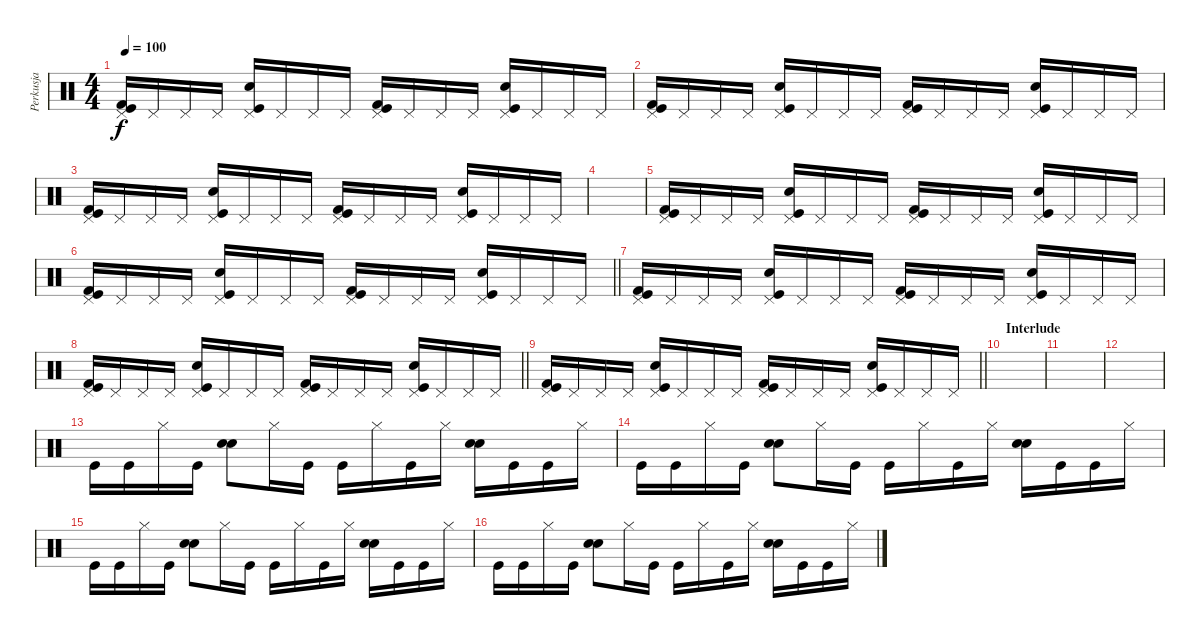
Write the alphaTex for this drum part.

\track ("Perkusja" "Perkusja") {instrument percussion}
\staff {score}
\articulation defaults
\ts (4 4)
\tempo 100
\clef neutral
\ks c
("Pedal Hi-Hat (hit)" "Kick (hit)" "Kick (hit) 2").16{dy f} "Pedal Hi-Hat (hit)".16 "Pedal Hi-Hat (hit)".16 "Pedal Hi-Hat (hit)".16 ("Pedal Hi-Hat (hit)" "Hand Clap (hit)" "Kick (hit)").16 "Pedal Hi-Hat (hit)".16 "Pedal Hi-Hat (hit)".16 "Pedal Hi-Hat (hit)".16 ("Pedal Hi-Hat (hit)" "Kick (hit)" "Kick (hit) 2").16 "Pedal Hi-Hat (hit)".16 "Pedal Hi-Hat (hit)".16 "Pedal Hi-Hat (hit)".16 ("Pedal Hi-Hat (hit)" "Hand Clap (hit)" "Kick (hit)").16 "Pedal Hi-Hat (hit)".16 "Pedal Hi-Hat (hit)".16 "Pedal Hi-Hat (hit)".16 |
("Pedal Hi-Hat (hit)" "Kick (hit)" "Kick (hit) 2").16 "Pedal Hi-Hat (hit)".16 "Pedal Hi-Hat (hit)".16 "Pedal Hi-Hat (hit)".16 ("Pedal Hi-Hat (hit)" "Hand Clap (hit)" "Kick (hit)").16 "Pedal Hi-Hat (hit)".16 "Pedal Hi-Hat (hit)".16 "Pedal Hi-Hat (hit)".16 ("Pedal Hi-Hat (hit)" "Kick (hit)" "Kick (hit) 2").16 "Pedal Hi-Hat (hit)".16 "Pedal Hi-Hat (hit)".16 "Pedal Hi-Hat (hit)".16 ("Pedal Hi-Hat (hit)" "Hand Clap (hit)" "Kick (hit)").16 "Pedal Hi-Hat (hit)".16 "Pedal Hi-Hat (hit)".16 "Pedal Hi-Hat (hit)".16 |
("Pedal Hi-Hat (hit)" "Kick (hit)" "Kick (hit) 2").16 "Pedal Hi-Hat (hit)".16 "Pedal Hi-Hat (hit)".16 "Pedal Hi-Hat (hit)".16 ("Pedal Hi-Hat (hit)" "Hand Clap (hit)" "Kick (hit)").16 "Pedal Hi-Hat (hit)".16 "Pedal Hi-Hat (hit)".16 "Pedal Hi-Hat (hit)".16 ("Pedal Hi-Hat (hit)" "Kick (hit)" "Kick (hit) 2").16 "Pedal Hi-Hat (hit)".16 "Pedal Hi-Hat (hit)".16 "Pedal Hi-Hat (hit)".16 ("Pedal Hi-Hat (hit)" "Hand Clap (hit)" "Kick (hit)").16 "Pedal Hi-Hat (hit)".16 "Pedal Hi-Hat (hit)".16 "Pedal Hi-Hat (hit)".16 |
|
("Pedal Hi-Hat (hit)" "Kick (hit)" "Kick (hit) 2").16 "Pedal Hi-Hat (hit)".16 "Pedal Hi-Hat (hit)".16 "Pedal Hi-Hat (hit)".16 ("Pedal Hi-Hat (hit)" "Hand Clap (hit)" "Kick (hit)").16 "Pedal Hi-Hat (hit)".16 "Pedal Hi-Hat (hit)".16 "Pedal Hi-Hat (hit)".16 ("Pedal Hi-Hat (hit)" "Kick (hit)" "Kick (hit) 2").16 "Pedal Hi-Hat (hit)".16 "Pedal Hi-Hat (hit)".16 "Pedal Hi-Hat (hit)".16 ("Pedal Hi-Hat (hit)" "Hand Clap (hit)" "Kick (hit)").16 "Pedal Hi-Hat (hit)".16 "Pedal Hi-Hat (hit)".16 "Pedal Hi-Hat (hit)".16 |
\barLineRight lightlight
("Pedal Hi-Hat (hit)" "Kick (hit)" "Kick (hit) 2").16 "Pedal Hi-Hat (hit)".16 "Pedal Hi-Hat (hit)".16 "Pedal Hi-Hat (hit)".16 ("Pedal Hi-Hat (hit)" "Hand Clap (hit)" "Kick (hit)").16 "Pedal Hi-Hat (hit)".16 "Pedal Hi-Hat (hit)".16 "Pedal Hi-Hat (hit)".16 ("Pedal Hi-Hat (hit)" "Kick (hit)" "Kick (hit) 2").16 "Pedal Hi-Hat (hit)".16 "Pedal Hi-Hat (hit)".16 "Pedal Hi-Hat (hit)".16 ("Pedal Hi-Hat (hit)" "Hand Clap (hit)" "Kick (hit)").16 "Pedal Hi-Hat (hit)".16 "Pedal Hi-Hat (hit)".16 "Pedal Hi-Hat (hit)".16 |
("Pedal Hi-Hat (hit)" "Kick (hit)" "Kick (hit) 2").16 "Pedal Hi-Hat (hit)".16 "Pedal Hi-Hat (hit)".16 "Pedal Hi-Hat (hit)".16 ("Pedal Hi-Hat (hit)" "Hand Clap (hit)" "Kick (hit)").16 "Pedal Hi-Hat (hit)".16 "Pedal Hi-Hat (hit)".16 "Pedal Hi-Hat (hit)".16 ("Pedal Hi-Hat (hit)" "Kick (hit)" "Kick (hit) 2").16 "Pedal Hi-Hat (hit)".16 "Pedal Hi-Hat (hit)".16 "Pedal Hi-Hat (hit)".16 ("Pedal Hi-Hat (hit)" "Hand Clap (hit)" "Kick (hit)").16 "Pedal Hi-Hat (hit)".16 "Pedal Hi-Hat (hit)".16 "Pedal Hi-Hat (hit)".16 |
\barLineRight lightlight
("Pedal Hi-Hat (hit)" "Kick (hit)" "Kick (hit) 2").16 "Pedal Hi-Hat (hit)".16 "Pedal Hi-Hat (hit)".16 "Pedal Hi-Hat (hit)".16 ("Pedal Hi-Hat (hit)" "Hand Clap (hit)" "Kick (hit)").16 "Pedal Hi-Hat (hit)".16 "Pedal Hi-Hat (hit)".16 "Pedal Hi-Hat (hit)".16 ("Pedal Hi-Hat (hit)" "Kick (hit)" "Kick (hit) 2").16 "Pedal Hi-Hat (hit)".16 "Pedal Hi-Hat (hit)".16 "Pedal Hi-Hat (hit)".16 ("Pedal Hi-Hat (hit)" "Hand Clap (hit)" "Kick (hit)").16 "Pedal Hi-Hat (hit)".16 "Pedal Hi-Hat (hit)".16 "Pedal Hi-Hat (hit)".16 |
\barLineRight lightlight
("Pedal Hi-Hat (hit)" "Kick (hit)" "Kick (hit) 2").16 "Pedal Hi-Hat (hit)".16 "Pedal Hi-Hat (hit)".16 "Pedal Hi-Hat (hit)".16 ("Pedal Hi-Hat (hit)" "Hand Clap (hit)" "Kick (hit)").16 "Pedal Hi-Hat (hit)".16 "Pedal Hi-Hat (hit)".16 "Pedal Hi-Hat (hit)".16 ("Pedal Hi-Hat (hit)" "Kick (hit)" "Kick (hit) 2").16 "Pedal Hi-Hat (hit)".16 "Pedal Hi-Hat (hit)".16 "Pedal Hi-Hat (hit)".16 ("Pedal Hi-Hat (hit)" "Hand Clap (hit)" "Kick (hit)").16 "Pedal Hi-Hat (hit)".16 "Pedal Hi-Hat (hit)".16 "Pedal Hi-Hat (hit)".16 |
\section ("" "Interlude")
|
|
|
"Kick (hit)".16 "Kick (hit)".16 "Hi-Hat (closed)".16 "Kick (hit)".16 ("Snare (hit) 2" "Hand Clap (hit)").8 "Hi-Hat (closed)".16 "Kick (hit)".16 "Kick (hit)".16 "Hi-Hat (closed)".16 "Kick (hit)".16 "Hi-Hat (closed)".16 ("Snare (hit) 2" "Hand Clap (hit)").16 "Kick (hit)".16 "Kick (hit)".16 "Hi-Hat (closed)".16 |
"Kick (hit)".16 "Kick (hit)".16 "Hi-Hat (closed)".16 "Kick (hit)".16 ("Snare (hit) 2" "Hand Clap (hit)").8 "Hi-Hat (closed)".16 "Kick (hit)".16 "Kick (hit)".16 "Hi-Hat (closed)".16 "Kick (hit)".16 "Hi-Hat (closed)".16 ("Snare (hit) 2" "Hand Clap (hit)").16 "Kick (hit)".16 "Kick (hit)".16 "Hi-Hat (closed)".16 |
"Kick (hit)".16 "Kick (hit)".16 "Hi-Hat (closed)".16 "Kick (hit)".16 ("Snare (hit) 2" "Hand Clap (hit)").8 "Hi-Hat (closed)".16 "Kick (hit)".16 "Kick (hit)".16 "Hi-Hat (closed)".16 "Kick (hit)".16 "Hi-Hat (closed)".16 ("Snare (hit) 2" "Hand Clap (hit)").16 "Kick (hit)".16 "Kick (hit)".16 "Hi-Hat (closed)".16 |
"Kick (hit)".16 "Kick (hit)".16 "Hi-Hat (closed)".16 "Kick (hit)".16 ("Snare (hit) 2" "Hand Clap (hit)").8 "Hi-Hat (closed)".16 "Kick (hit)".16 "Kick (hit)".16 "Hi-Hat (closed)".16 "Kick (hit)".16 "Hi-Hat (closed)".16 ("Snare (hit) 2" "Hand Clap (hit)").16 "Kick (hit)".16 "Kick (hit)".16 "Hi-Hat (closed)".16
